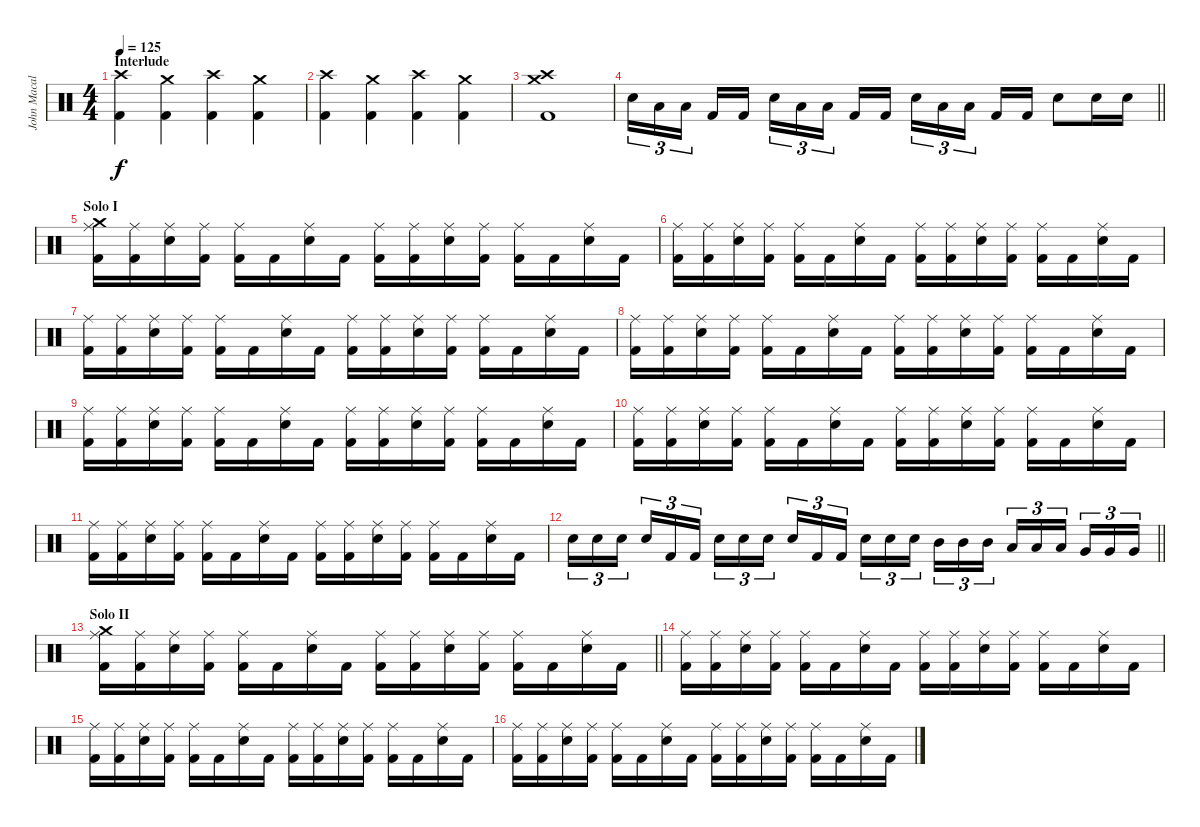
\track ("John Macaluso " "John Macal") {instrument percussion}
\staff {score}
\articulation defaults
\ts (4 4)
\section ("" "Interlude")
\tempo 125
\clef neutral
\ks c
("Crash high (hit)" "Kick (hit) 2").4{dy f} ("Crash medium (hit)" "Kick (hit) 2").4 ("Crash high (hit)" "Kick (hit) 2").4 ("Crash medium (hit)" "Kick (hit) 2").4 |
("Crash high (hit)" "Kick (hit) 2").4 ("Crash medium (hit)" "Kick (hit) 2").4 ("Crash high (hit)" "Kick (hit) 2").4 ("Crash medium (hit)" "Kick (hit) 2").4 |
("Crash medium (hit)" "Crash high (hit)" "Kick (hit) 2").1 |
\barLineRight lightlight "Snare (hit) 2".16{tu (3 2)} "Low Tom (hit)".16{tu (3 2)} "Low Tom (hit)".16{tu (3 2) beam splitsecondary} "Kick (hit) 2".16 "Kick (hit) 2".16 "Snare (hit) 2".16{tu (3 2)} "Low Tom (hit)".16{tu (3 2)} "Low Tom (hit)".16{tu (3 2) beam splitsecondary} "Kick (hit) 2".16 "Kick (hit) 2".16 "Snare (hit) 2".16{tu (3 2)} "Low Tom (hit)".16{tu (3 2)} "Low Tom (hit)".16{tu (3 2) beam splitsecondary} "Kick (hit) 2".16 "Kick (hit) 2".16 "Snare (hit) 2".8 "Snare (hit) 2".16 "Snare (hit) 2".16
|
\section ("" "Solo I")
("Crash medium (hit)" "Ride (middle)" "Kick (hit) 2").16 ("Ride (middle)" "Kick (hit) 2").16 ("Ride (middle)" "Snare (hit) 2").16 ("Ride (middle)" "Kick (hit) 2").16 ("Ride (middle)" "Kick (hit) 2").16 "Kick (hit) 2".16 ("Ride (middle)" "Snare (hit) 2").16 "Kick (hit) 2".16 ("Ride (middle)" "Kick (hit) 2").16 ("Ride (middle)" "Kick (hit) 2").16 ("Ride (middle)" "Snare (hit) 2").16 ("Ride (middle)" "Kick (hit) 2").16 ("Ride (middle)" "Kick (hit) 2").16 "Kick (hit) 2".16 ("Ride (middle)" "Snare (hit) 2").16 "Kick (hit) 2".16 |
("Ride (middle)" "Kick (hit) 2").16 ("Ride (middle)" "Kick (hit) 2").16 ("Ride (middle)" "Snare (hit) 2").16 ("Ride (middle)" "Kick (hit) 2").16 ("Ride (middle)" "Kick (hit) 2").16 "Kick (hit) 2".16 ("Ride (middle)" "Snare (hit) 2").16 "Kick (hit) 2".16 ("Ride (middle)" "Kick (hit) 2").16 ("Ride (middle)" "Kick (hit) 2").16 ("Ride (middle)" "Snare (hit) 2").16 ("Ride (middle)" "Kick (hit) 2").16 ("Ride (middle)" "Kick (hit) 2").16 "Kick (hit) 2".16 ("Ride (middle)" "Snare (hit) 2").16 "Kick (hit) 2".16 |
("Ride (middle)" "Kick (hit) 2").16 ("Ride (middle)" "Kick (hit) 2").16 ("Ride (middle)" "Snare (hit) 2").16 ("Ride (middle)" "Kick (hit) 2").16 ("Ride (middle)" "Kick (hit) 2").16 "Kick (hit) 2".16 ("Ride (middle)" "Snare (hit) 2").16 "Kick (hit) 2".16 ("Ride (middle)" "Kick (hit) 2").16 ("Ride (middle)" "Kick (hit) 2").16 ("Ride (middle)" "Snare (hit) 2").16 ("Ride (middle)" "Kick (hit) 2").16 ("Ride (middle)" "Kick (hit) 2").16 "Kick (hit) 2".16 ("Ride (middle)" "Snare (hit) 2").16 "Kick (hit) 2".16 |
("Ride (middle)" "Kick (hit) 2").16 ("Ride (middle)" "Kick (hit) 2").16 ("Ride (middle)" "Snare (hit) 2").16 ("Ride (middle)" "Kick (hit) 2").16 ("Ride (middle)" "Kick (hit) 2").16 "Kick (hit) 2".16 ("Ride (middle)" "Snare (hit) 2").16 "Kick (hit) 2".16 ("Ride (middle)" "Kick (hit) 2").16 ("Ride (middle)" "Kick (hit) 2").16 ("Ride (middle)" "Snare (hit) 2").16 ("Ride (middle)" "Kick (hit) 2").16 ("Ride (middle)" "Kick (hit) 2").16 "Kick (hit) 2".16 ("Ride (middle)" "Snare (hit) 2").16 "Kick (hit) 2".16 |
("Ride (middle)" "Kick (hit) 2").16 ("Ride (middle)" "Kick (hit) 2").16 ("Ride (middle)" "Snare (hit) 2").16 ("Ride (middle)" "Kick (hit) 2").16 ("Ride (middle)" "Kick (hit) 2").16 "Kick (hit) 2".16 ("Ride (middle)" "Snare (hit) 2").16 "Kick (hit) 2".16 ("Ride (middle)" "Kick (hit) 2").16 ("Ride (middle)" "Kick (hit) 2").16 ("Ride (middle)" "Snare (hit) 2").16 ("Ride (middle)" "Kick (hit) 2").16 ("Ride (middle)" "Kick (hit) 2").16 "Kick (hit) 2".16 ("Ride (middle)" "Snare (hit) 2").16 "Kick (hit) 2".16 |
("Ride (middle)" "Kick (hit) 2").16 ("Ride (middle)" "Kick (hit) 2").16 ("Ride (middle)" "Snare (hit) 2").16 ("Ride (middle)" "Kick (hit) 2").16 ("Ride (middle)" "Kick (hit) 2").16 "Kick (hit) 2".16 ("Ride (middle)" "Snare (hit) 2").16 "Kick (hit) 2".16 ("Ride (middle)" "Kick (hit) 2").16 ("Ride (middle)" "Kick (hit) 2").16 ("Ride (middle)" "Snare (hit) 2").16 ("Ride (middle)" "Kick (hit) 2").16 ("Ride (middle)" "Kick (hit) 2").16 "Kick (hit) 2".16 ("Ride (middle)" "Snare (hit) 2").16 "Kick (hit) 2".16 |
("Ride (middle)" "Kick (hit) 2").16 ("Ride (middle)" "Kick (hit) 2").16 ("Ride (middle)" "Snare (hit) 2").16 ("Ride (middle)" "Kick (hit) 2").16 ("Ride (middle)" "Kick (hit) 2").16 "Kick (hit) 2".16 ("Ride (middle)" "Snare (hit) 2").16 "Kick (hit) 2".16 ("Ride (middle)" "Kick (hit) 2").16 ("Ride (middle)" "Kick (hit) 2").16 ("Ride (middle)" "Snare (hit) 2").16 ("Ride (middle)" "Kick (hit) 2").16 ("Ride (middle)" "Kick (hit) 2").16 "Kick (hit) 2".16 ("Ride (middle)" "Snare (hit) 2").16 "Kick (hit) 2".16 |
\barLineRight lightlight "Snare (hit) 2".16{tu (3 2)} "Snare (hit) 2".16{tu (3 2)} "Snare (hit) 2".16{tu (3 2) beam splitsecondary} "Snare (hit) 2".16{tu (3 2)} "Kick (hit) 2".16{tu (3 2)} "Kick (hit) 2".16{tu (3 2)} "Snare (hit) 2".16{tu (3 2)} "Snare (hit) 2".16{tu (3 2)} "Snare (hit) 2".16{tu (3 2) beam splitsecondary} "Snare (hit) 2".16{tu (3 2)} "Kick (hit) 2".16{tu (3 2)} "Kick (hit) 2".16{tu (3 2)} "Snare (hit) 2".16{tu (3 2)} "Snare (hit) 2".16{tu (3 2)} "Snare (hit) 2".16{tu (3 2) beam splitsecondary} "Mid Tom (hit)".16{tu (3 2)} "Mid Tom (hit)".16{tu (3 2)} "Mid Tom (hit)".16{tu (3 2)} "Low Tom (hit)".16{tu (3 2)} "Low Tom (hit)".16{tu (3 2)} "Low Tom (hit)".16{tu (3 2) beam splitsecondary} "Very Low Tom (hit)".16{tu (3 2)} "Very Low Tom (hit)".16{tu (3 2)} "Very Low Tom (hit)".16{tu (3 2)}
|
\section ("" "Solo II")
\barLineRight lightlight
("Crash medium (hit)" "Ride (middle)" "Kick (hit) 2").16 ("Ride (middle)" "Kick (hit) 2").16 ("Ride (middle)" "Snare (hit) 2").16 ("Ride (middle)" "Kick (hit) 2").16 ("Ride (middle)" "Kick (hit) 2").16 "Kick (hit) 2".16 ("Ride (middle)" "Snare (hit) 2").16 "Kick (hit) 2".16 ("Ride (middle)" "Kick (hit) 2").16 ("Ride (middle)" "Kick (hit) 2").16 ("Ride (middle)" "Snare (hit) 2").16 ("Ride (middle)" "Kick (hit) 2").16 ("Ride (middle)" "Kick (hit) 2").16 "Kick (hit) 2".16 ("Ride (middle)" "Snare (hit) 2").16 "Kick (hit) 2".16 |
("Ride (middle)" "Kick (hit) 2").16 ("Ride (middle)" "Kick (hit) 2").16 ("Ride (middle)" "Snare (hit) 2").16 ("Ride (middle)" "Kick (hit) 2").16 ("Ride (middle)" "Kick (hit) 2").16 "Kick (hit) 2".16 ("Ride (middle)" "Snare (hit) 2").16 "Kick (hit) 2".16 ("Ride (middle)" "Kick (hit) 2").16 ("Ride (middle)" "Kick (hit) 2").16 ("Ride (middle)" "Snare (hit) 2").16 ("Ride (middle)" "Kick (hit) 2").16 ("Ride (middle)" "Kick (hit) 2").16 "Kick (hit) 2".16 ("Ride (middle)" "Snare (hit) 2").16 "Kick (hit) 2".16 |
("Ride (middle)" "Kick (hit) 2").16 ("Ride (middle)" "Kick (hit) 2").16 ("Ride (middle)" "Snare (hit) 2").16 ("Ride (middle)" "Kick (hit) 2").16 ("Ride (middle)" "Kick (hit) 2").16 "Kick (hit) 2".16 ("Ride (middle)" "Snare (hit) 2").16 "Kick (hit) 2".16 ("Ride (middle)" "Kick (hit) 2").16 ("Ride (middle)" "Kick (hit) 2").16 ("Ride (middle)" "Snare (hit) 2").16 ("Ride (middle)" "Kick (hit) 2").16 ("Ride (middle)" "Kick (hit) 2").16 "Kick (hit) 2".16 ("Ride (middle)" "Snare (hit) 2").16 "Kick (hit) 2".16 |
("Ride (middle)" "Kick (hit) 2").16 ("Ride (middle)" "Kick (hit) 2").16 ("Ride (middle)" "Snare (hit) 2").16 ("Ride (middle)" "Kick (hit) 2").16 ("Ride (middle)" "Kick (hit) 2").16 "Kick (hit) 2".16 ("Ride (middle)" "Snare (hit) 2").16 "Kick (hit) 2".16 ("Ride (middle)" "Kick (hit) 2").16 ("Ride (middle)" "Kick (hit) 2").16 ("Ride (middle)" "Snare (hit) 2").16 ("Ride (middle)" "Kick (hit) 2").16 ("Ride (middle)" "Kick (hit) 2").16 "Kick (hit) 2".16 ("Ride (middle)" "Snare (hit) 2").16 "Kick (hit) 2".16
